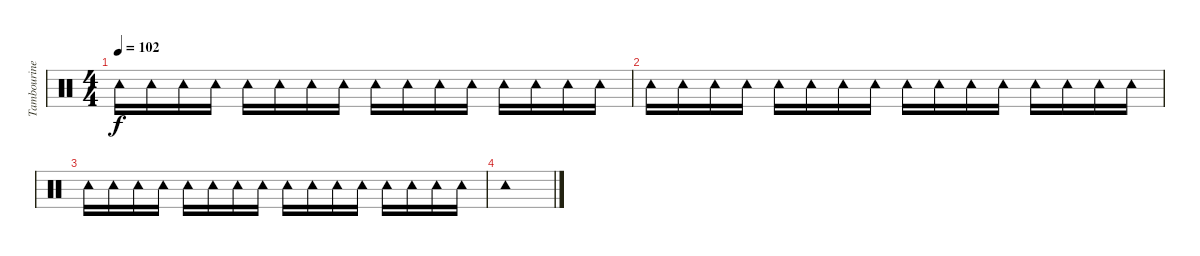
\track ("Tambourine" "Tambourine") {instrument percussion}
\staff {score}
\articulation defaults
\ts (4 4)
\tempo 102
\clef neutral
\ks c "Tambourine (hit)".16{dy f} "Tambourine (hit)".16 "Tambourine (hit)".16 "Tambourine (hit)".16 "Tambourine (hit)".16 "Tambourine (hit)".16 "Tambourine (hit)".16 "Tambourine (hit)".16 "Tambourine (hit)".16 "Tambourine (hit)".16 "Tambourine (hit)".16 "Tambourine (hit)".16 "Tambourine (hit)".16 "Tambourine (hit)".16 "Tambourine (hit)".16 "Tambourine (hit)".16
|
"Tambourine (hit)".16 "Tambourine (hit)".16 "Tambourine (hit)".16 "Tambourine (hit)".16 "Tambourine (hit)".16 "Tambourine (hit)".16 "Tambourine (hit)".16 "Tambourine (hit)".16 "Tambourine (hit)".16 "Tambourine (hit)".16 "Tambourine (hit)".16 "Tambourine (hit)".16 "Tambourine (hit)".16 "Tambourine (hit)".16 "Tambourine (hit)".16 "Tambourine (hit)".16 |
"Tambourine (hit)".16 "Tambourine (hit)".16 "Tambourine (hit)".16 "Tambourine (hit)".16 "Tambourine (hit)".16 "Tambourine (hit)".16 "Tambourine (hit)".16 "Tambourine (hit)".16 "Tambourine (hit)".16 "Tambourine (hit)".16 "Tambourine (hit)".16 "Tambourine (hit)".16 "Tambourine (hit)".16 "Tambourine (hit)".16 "Tambourine (hit)".16 "Tambourine (hit)".16 |
"Tambourine (hit)".1
